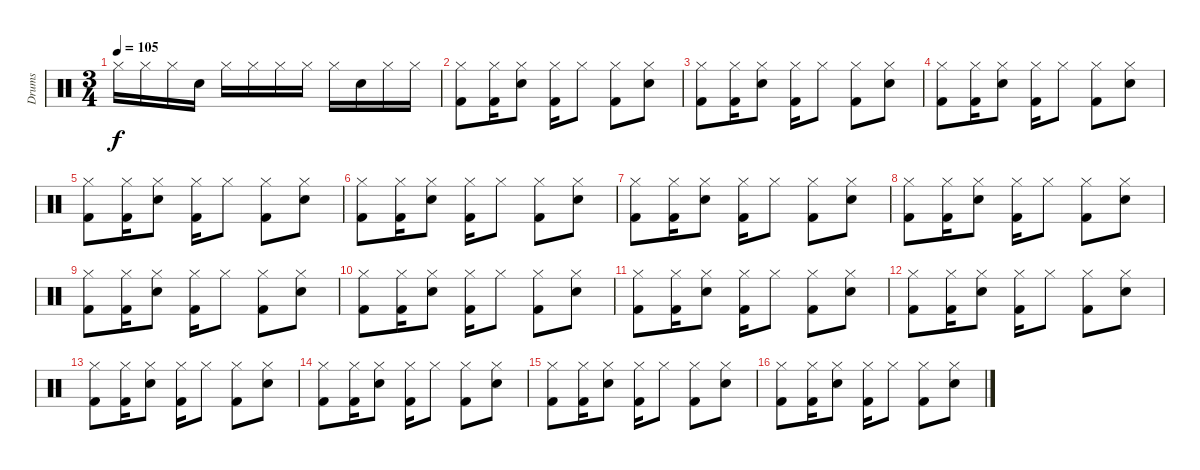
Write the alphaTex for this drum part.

\track ("Drums" "Drums") {instrument percussion}
\staff {score}
\articulation defaults
\ts (3 4)
\tempo 105
\clef neutral
\ks c "Hi-Hat (closed)".16{dy f} "Hi-Hat (closed)".16 "Hi-Hat (closed)".16 "Snare (hit) 2".16 "Hi-Hat (closed)".16 "Hi-Hat (closed)".16 "Hi-Hat (closed)".16 "Hi-Hat (closed)".16 "Hi-Hat (closed)".16 "Snare (hit) 2".16 "Hi-Hat (closed)".16 "Hi-Hat (closed)".16
|
("Hi-Hat (closed)" "Kick (hit) 2").8 ("Hi-Hat (closed)" "Kick (hit) 2").16 ("Hi-Hat (closed)" "Snare (hit) 2").8 ("Hi-Hat (closed)" "Kick (hit) 2").16 "Hi-Hat (closed)".8 ("Hi-Hat (closed)" "Kick (hit) 2").8 ("Hi-Hat (closed)" "Snare (hit) 2").8 |
("Hi-Hat (closed)" "Kick (hit) 2").8 ("Hi-Hat (closed)" "Kick (hit) 2").16 ("Hi-Hat (closed)" "Snare (hit) 2").8 ("Hi-Hat (closed)" "Kick (hit) 2").16 "Hi-Hat (closed)".8 ("Hi-Hat (closed)" "Kick (hit) 2").8 ("Hi-Hat (closed)" "Snare (hit) 2").8 |
("Hi-Hat (closed)" "Kick (hit) 2").8 ("Hi-Hat (closed)" "Kick (hit) 2").16 ("Hi-Hat (closed)" "Snare (hit) 2").8 ("Hi-Hat (closed)" "Kick (hit) 2").16 "Hi-Hat (closed)".8 ("Hi-Hat (closed)" "Kick (hit) 2").8 ("Hi-Hat (closed)" "Snare (hit) 2").8 |
("Hi-Hat (closed)" "Kick (hit) 2").8 ("Hi-Hat (closed)" "Kick (hit) 2").16 ("Hi-Hat (closed)" "Snare (hit) 2").8 ("Hi-Hat (closed)" "Kick (hit) 2").16 "Hi-Hat (closed)".8 ("Hi-Hat (closed)" "Kick (hit) 2").8 ("Hi-Hat (closed)" "Snare (hit) 2").8 |
("Hi-Hat (closed)" "Kick (hit) 2").8 ("Hi-Hat (closed)" "Kick (hit) 2").16 ("Hi-Hat (closed)" "Snare (hit) 2").8 ("Hi-Hat (closed)" "Kick (hit) 2").16 "Hi-Hat (closed)".8 ("Hi-Hat (closed)" "Kick (hit) 2").8 ("Hi-Hat (closed)" "Snare (hit) 2").8 |
("Hi-Hat (closed)" "Kick (hit) 2").8 ("Hi-Hat (closed)" "Kick (hit) 2").16 ("Hi-Hat (closed)" "Snare (hit) 2").8 ("Hi-Hat (closed)" "Kick (hit) 2").16 "Hi-Hat (closed)".8 ("Hi-Hat (closed)" "Kick (hit) 2").8 ("Hi-Hat (closed)" "Snare (hit) 2").8 |
("Hi-Hat (closed)" "Kick (hit) 2").8 ("Hi-Hat (closed)" "Kick (hit) 2").16 ("Hi-Hat (closed)" "Snare (hit) 2").8 ("Hi-Hat (closed)" "Kick (hit) 2").16 "Hi-Hat (closed)".8 ("Hi-Hat (closed)" "Kick (hit) 2").8 ("Hi-Hat (closed)" "Snare (hit) 2").8 |
("Hi-Hat (closed)" "Kick (hit) 2").8 ("Hi-Hat (closed)" "Kick (hit) 2").16 ("Hi-Hat (closed)" "Snare (hit) 2").8 ("Hi-Hat (closed)" "Kick (hit) 2").16 "Hi-Hat (closed)".8 ("Hi-Hat (closed)" "Kick (hit) 2").8 ("Hi-Hat (closed)" "Snare (hit) 2").8 |
("Hi-Hat (closed)" "Kick (hit) 2").8 ("Hi-Hat (closed)" "Kick (hit) 2").16 ("Hi-Hat (closed)" "Snare (hit) 2").8 ("Hi-Hat (closed)" "Kick (hit) 2").16 "Hi-Hat (closed)".8 ("Hi-Hat (closed)" "Kick (hit) 2").8 ("Hi-Hat (closed)" "Snare (hit) 2").8 |
("Hi-Hat (closed)" "Kick (hit) 2").8 ("Hi-Hat (closed)" "Kick (hit) 2").16 ("Hi-Hat (closed)" "Snare (hit) 2").8 ("Hi-Hat (closed)" "Kick (hit) 2").16 "Hi-Hat (closed)".8 ("Hi-Hat (closed)" "Kick (hit) 2").8 ("Hi-Hat (closed)" "Snare (hit) 2").8 |
("Hi-Hat (closed)" "Kick (hit) 2").8 ("Hi-Hat (closed)" "Kick (hit) 2").16 ("Hi-Hat (closed)" "Snare (hit) 2").8 ("Hi-Hat (closed)" "Kick (hit) 2").16 "Hi-Hat (closed)".8 ("Hi-Hat (closed)" "Kick (hit) 2").8 ("Hi-Hat (closed)" "Snare (hit) 2").8 |
("Hi-Hat (closed)" "Kick (hit) 2").8 ("Hi-Hat (closed)" "Kick (hit) 2").16 ("Hi-Hat (closed)" "Snare (hit) 2").8 ("Hi-Hat (closed)" "Kick (hit) 2").16 "Hi-Hat (closed)".8 ("Hi-Hat (closed)" "Kick (hit) 2").8 ("Hi-Hat (closed)" "Snare (hit) 2").8 |
("Hi-Hat (closed)" "Kick (hit) 2").8 ("Hi-Hat (closed)" "Kick (hit) 2").16 ("Hi-Hat (closed)" "Snare (hit) 2").8 ("Hi-Hat (closed)" "Kick (hit) 2").16 "Hi-Hat (closed)".8 ("Hi-Hat (closed)" "Kick (hit) 2").8 ("Hi-Hat (closed)" "Snare (hit) 2").8 |
("Hi-Hat (closed)" "Kick (hit) 2").8 ("Hi-Hat (closed)" "Kick (hit) 2").16 ("Hi-Hat (closed)" "Snare (hit) 2").8 ("Hi-Hat (closed)" "Kick (hit) 2").16 "Hi-Hat (closed)".8 ("Hi-Hat (closed)" "Kick (hit) 2").8 ("Hi-Hat (closed)" "Snare (hit) 2").8 |
("Hi-Hat (closed)" "Kick (hit) 2").8 ("Hi-Hat (closed)" "Kick (hit) 2").16 ("Hi-Hat (closed)" "Snare (hit) 2").8 ("Hi-Hat (closed)" "Kick (hit) 2").16 "Hi-Hat (closed)".8 ("Hi-Hat (closed)" "Kick (hit) 2").8 ("Hi-Hat (closed)" "Snare (hit) 2").8
